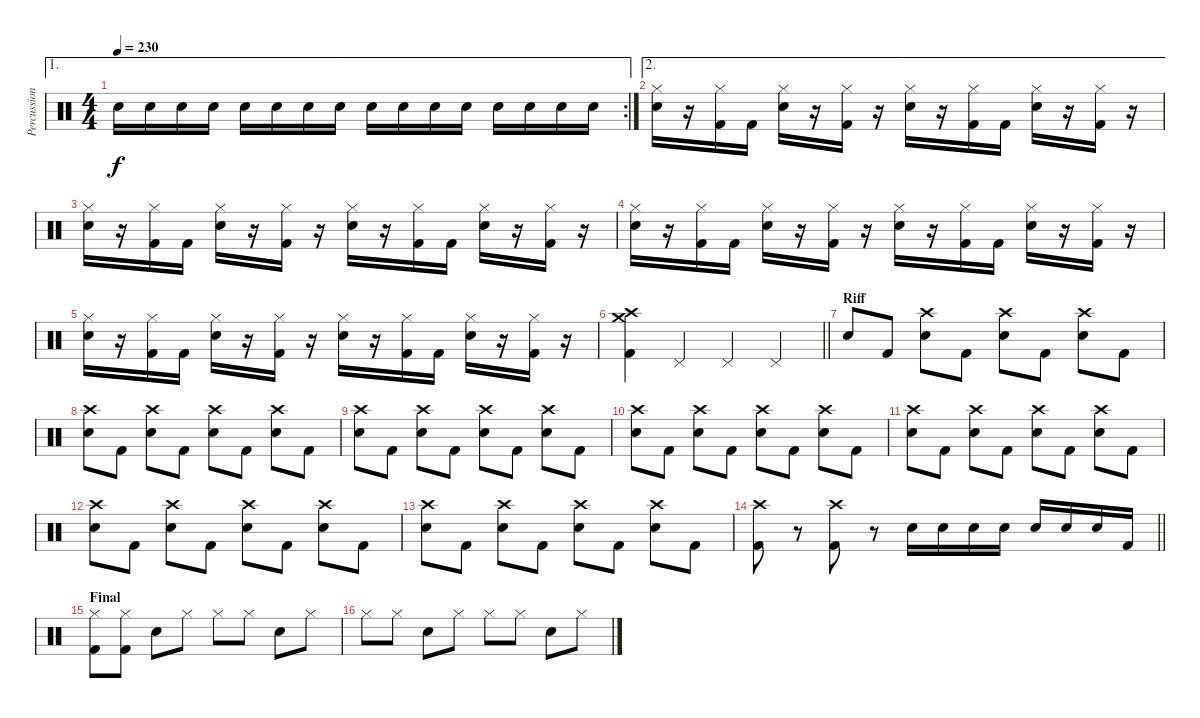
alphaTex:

\track ("Percussion" "Percussion") {instrument percussion}
\staff {score}
\articulation defaults
\ae 1
\rc 2
\ts (4 4)
\tempo 230
\clef neutral
\ks c "Electric Snare (hit)".16{dy f} "Electric Snare (hit)".16 "Electric Snare (hit)".16 "Electric Snare (hit)".16 "Electric Snare (hit)".16 "Electric Snare (hit)".16 "Electric Snare (hit)".16 "Electric Snare (hit)".16 "Electric Snare (hit)".16 "Electric Snare (hit)".16 "Electric Snare (hit)".16 "Electric Snare (hit)".16 "Electric Snare (hit)".16 "Electric Snare (hit)".16 "Electric Snare (hit)".16 "Electric Snare (hit)".16
|
\ae 2
("Hi-Hat (closed)" "Electric Snare (hit)").16 r.16 ("Hi-Hat (closed)" "Kick (hit) 2").16 "Kick (hit) 2".16 ("Hi-Hat (closed)" "Electric Snare (hit)").16 r.16 ("Hi-Hat (closed)" "Kick (hit) 2").16 r.16 ("Hi-Hat (closed)" "Electric Snare (hit)").16 r.16 ("Hi-Hat (closed)" "Kick (hit) 2").16 "Kick (hit) 2".16 ("Hi-Hat (closed)" "Electric Snare (hit)").16 r.16 ("Hi-Hat (closed)" "Kick (hit) 2").16 r.16 |
("Hi-Hat (closed)" "Electric Snare (hit)").16 r.16 ("Hi-Hat (closed)" "Kick (hit) 2").16 "Kick (hit) 2".16 ("Hi-Hat (closed)" "Electric Snare (hit)").16 r.16 ("Hi-Hat (closed)" "Kick (hit) 2").16 r.16 ("Hi-Hat (closed)" "Electric Snare (hit)").16 r.16 ("Hi-Hat (closed)" "Kick (hit) 2").16 "Kick (hit) 2".16 ("Hi-Hat (closed)" "Electric Snare (hit)").16 r.16 ("Hi-Hat (closed)" "Kick (hit) 2").16 r.16 |
("Hi-Hat (closed)" "Electric Snare (hit)").16 r.16 ("Hi-Hat (closed)" "Kick (hit) 2").16 "Kick (hit) 2".16 ("Hi-Hat (closed)" "Electric Snare (hit)").16 r.16 ("Hi-Hat (closed)" "Kick (hit) 2").16 r.16 ("Hi-Hat (closed)" "Electric Snare (hit)").16 r.16 ("Hi-Hat (closed)" "Kick (hit) 2").16 "Kick (hit) 2".16 ("Hi-Hat (closed)" "Electric Snare (hit)").16 r.16 ("Hi-Hat (closed)" "Kick (hit) 2").16 r.16 |
("Hi-Hat (closed)" "Electric Snare (hit)").16 r.16 ("Hi-Hat (closed)" "Kick (hit) 2").16 "Kick (hit) 2".16 ("Hi-Hat (closed)" "Electric Snare (hit)").16 r.16 ("Hi-Hat (closed)" "Kick (hit) 2").16 r.16 ("Hi-Hat (closed)" "Electric Snare (hit)").16 r.16 ("Hi-Hat (closed)" "Kick (hit) 2").16 "Kick (hit) 2".16 ("Hi-Hat (closed)" "Electric Snare (hit)").16 r.16 ("Hi-Hat (closed)" "Kick (hit) 2").16 r.16 |
\barLineRight lightlight
("Crash high (hit)" "Crash medium (hit)" "Kick (hit) 2").4 "Pedal Hi-Hat (hit)".4 "Pedal Hi-Hat (hit)".4 "Pedal Hi-Hat (hit)".4 |
\section ("" "Riff")
"Electric Snare (hit)".8 "Kick (hit) 2".8 ("Crash high (hit)" "Electric Snare (hit)").8 "Kick (hit) 2".8 ("Crash high (hit)" "Electric Snare (hit)").8 "Kick (hit) 2".8 ("Crash high (hit)" "Electric Snare (hit)").8 "Kick (hit) 2".8 |
("Crash high (hit)" "Electric Snare (hit)").8 "Kick (hit) 2".8 ("Crash high (hit)" "Electric Snare (hit)").8 "Kick (hit) 2".8 ("Crash high (hit)" "Electric Snare (hit)").8 "Kick (hit) 2".8 ("Crash high (hit)" "Electric Snare (hit)").8 "Kick (hit) 2".8 |
("Crash high (hit)" "Electric Snare (hit)").8 "Kick (hit) 2".8 ("Crash high (hit)" "Electric Snare (hit)").8 "Kick (hit) 2".8 ("Crash high (hit)" "Electric Snare (hit)").8 "Kick (hit) 2".8 ("Crash high (hit)" "Electric Snare (hit)").8 "Kick (hit) 2".8 |
("Crash high (hit)" "Electric Snare (hit)").8 "Kick (hit) 2".8 ("Crash high (hit)" "Electric Snare (hit)").8 "Kick (hit) 2".8 ("Crash high (hit)" "Electric Snare (hit)").8 "Kick (hit) 2".8 ("Crash high (hit)" "Electric Snare (hit)").8 "Kick (hit) 2".8 |
("Crash high (hit)" "Electric Snare (hit)").8 "Kick (hit) 2".8 ("Crash high (hit)" "Electric Snare (hit)").8 "Kick (hit) 2".8 ("Crash high (hit)" "Electric Snare (hit)").8 "Kick (hit) 2".8 ("Crash high (hit)" "Electric Snare (hit)").8 "Kick (hit) 2".8 |
("Crash high (hit)" "Electric Snare (hit)").8 "Kick (hit) 2".8 ("Crash high (hit)" "Electric Snare (hit)").8 "Kick (hit) 2".8 ("Crash high (hit)" "Electric Snare (hit)").8 "Kick (hit) 2".8 ("Crash high (hit)" "Electric Snare (hit)").8 "Kick (hit) 2".8 |
("Crash high (hit)" "Electric Snare (hit)").8 "Kick (hit) 2".8 ("Crash high (hit)" "Electric Snare (hit)").8 "Kick (hit) 2".8 ("Crash high (hit)" "Electric Snare (hit)").8 "Kick (hit) 2".8 ("Crash high (hit)" "Electric Snare (hit)").8 "Kick (hit) 2".8 |
\barLineRight lightlight
("Crash high (hit)" "Kick (hit) 2").8 r.8 ("Crash high (hit)" "Kick (hit) 2").8 r.8 "Electric Snare (hit)".16 "Electric Snare (hit)".16 "Electric Snare (hit)".16 "Electric Snare (hit)".16 "Electric Snare (hit)".16 "Electric Snare (hit)".16 "Electric Snare (hit)".16 "Kick (hit) 2".16 |
\section ("" "Final")
("Hi-Hat (closed)" "Kick (hit) 2").8 ("Hi-Hat (closed)" "Kick (hit) 2").8 "Electric Snare (hit)".8 "Hi-Hat (closed)".8 "Hi-Hat (closed)".8 "Hi-Hat (closed)".8 "Electric Snare (hit)".8 "Hi-Hat (closed)".8 |
"Hi-Hat (closed)".8 "Hi-Hat (closed)".8 "Electric Snare (hit)".8 "Hi-Hat (closed)".8 "Hi-Hat (closed)".8 "Hi-Hat (closed)".8 "Electric Snare (hit)".8 "Hi-Hat (closed)".8
